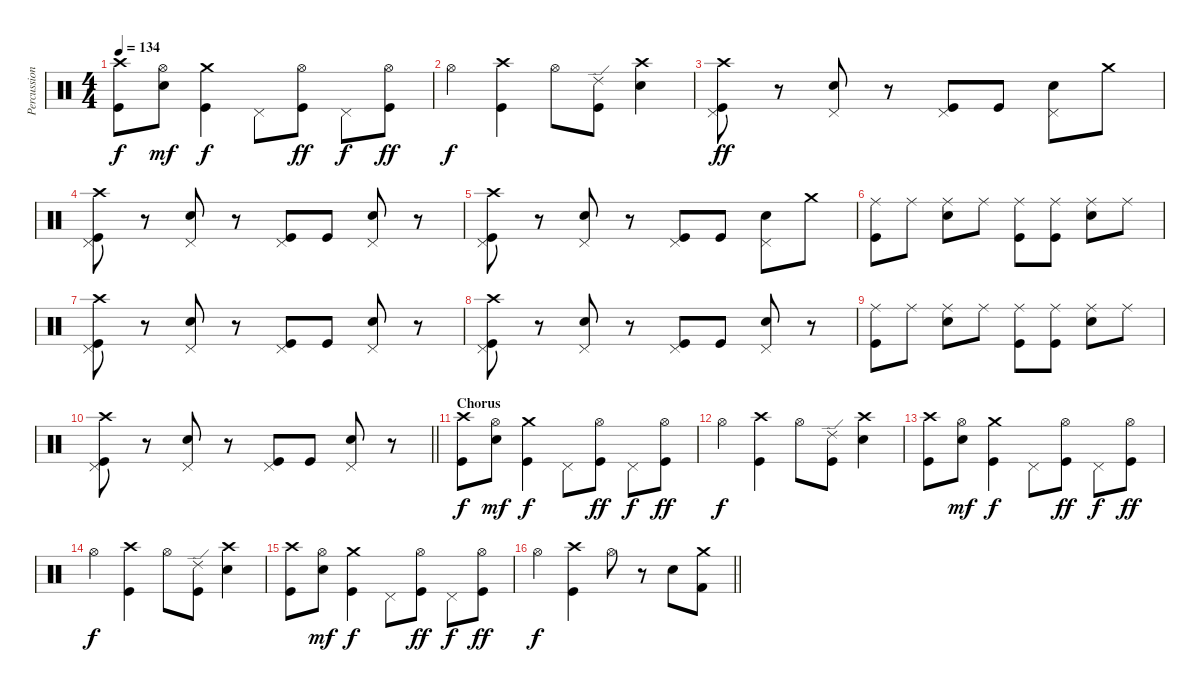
\track ("Percussion" "Percussion") {instrument percussion}
\staff {score}
\articulation defaults
\ts (4 4)
\tempo 134
\clef neutral
\ks c
("Crash high (hit)" "Kick (hit)").8{dy f} ("Hi-Hat (open)" "Electric Snare (hit)").8{dy mf} ("Crash medium (hit)" "Kick (hit)").4{dy f} "Pedal Hi-Hat (hit)".8 ("Hi-Hat (open)" "Kick (hit)").8{dy ff} "Pedal Hi-Hat (hit)".8{dy f} ("Hi-Hat (open)" "Kick (hit)").8{dy ff} |
"Hi-Hat (open)".4{dy f} ("Crash high (hit)" "Kick (hit)").4 "Hi-Hat (open)".8 ("Ride (edge) 2" "Kick (hit)").8 ("Crash high (hit)" "Electric Snare (hit)").4 |
("Crash high (hit)" "Kick (hit)" "Pedal Hi-Hat (hit)").8{dy ff} r.8 ("Electric Snare (hit)" "Pedal Hi-Hat (hit)").8 r.8 ("Kick (hit)" "Pedal Hi-Hat (hit)").8 "Kick (hit)".8 ("Electric Snare (hit)" "Pedal Hi-Hat (hit)").8 "Crash medium (hit)".8 |
("Crash high (hit)" "Kick (hit)" "Pedal Hi-Hat (hit)").8 r.8 ("Electric Snare (hit)" "Pedal Hi-Hat (hit)").8 r.8 ("Kick (hit)" "Pedal Hi-Hat (hit)").8 "Kick (hit)".8 ("Electric Snare (hit)" "Pedal Hi-Hat (hit)").8 r.8 |
("Crash high (hit)" "Kick (hit)" "Pedal Hi-Hat (hit)").8 r.8 ("Electric Snare (hit)" "Pedal Hi-Hat (hit)").8 r.8 ("Kick (hit)" "Pedal Hi-Hat (hit)").8 "Kick (hit)".8 ("Electric Snare (hit)" "Pedal Hi-Hat (hit)").8 "Crash medium (hit)".8 |
("Kick (hit)" "Ride (middle)").8 "Ride (middle)".8 ("Electric Snare (hit)" "Ride (middle)").8 "Ride (middle)".8 ("Kick (hit)" "Ride (middle)").8 ("Kick (hit)" "Ride (middle)").8 ("Electric Snare (hit)" "Ride (middle)").8 "Ride (middle)".8 |
("Crash high (hit)" "Kick (hit)" "Pedal Hi-Hat (hit)").8 r.8 ("Electric Snare (hit)" "Pedal Hi-Hat (hit)").8 r.8 ("Kick (hit)" "Pedal Hi-Hat (hit)").8 "Kick (hit)".8 ("Electric Snare (hit)" "Pedal Hi-Hat (hit)").8 r.8 |
("Crash high (hit)" "Kick (hit)" "Pedal Hi-Hat (hit)").8 r.8 ("Electric Snare (hit)" "Pedal Hi-Hat (hit)").8 r.8 ("Kick (hit)" "Pedal Hi-Hat (hit)").8 "Kick (hit)".8 ("Electric Snare (hit)" "Pedal Hi-Hat (hit)").8 r.8 |
("Kick (hit)" "Ride (middle)").8 "Ride (middle)".8 ("Electric Snare (hit)" "Ride (middle)").8 "Ride (middle)".8 ("Kick (hit)" "Ride (middle)").8 ("Kick (hit)" "Ride (middle)").8 ("Electric Snare (hit)" "Ride (middle)").8 "Ride (middle)".8 |
\barLineRight lightlight
("Crash high (hit)" "Kick (hit)" "Pedal Hi-Hat (hit)").8 r.8 ("Electric Snare (hit)" "Pedal Hi-Hat (hit)").8 r.8 ("Kick (hit)" "Pedal Hi-Hat (hit)").8 "Kick (hit)".8 ("Electric Snare (hit)" "Pedal Hi-Hat (hit)").8 r.8 |
\section ("" "Chorus")
("Crash high (hit)" "Kick (hit)").8{dy f} ("Hi-Hat (open)" "Electric Snare (hit)").8{dy mf} ("Crash medium (hit)" "Kick (hit)").4{dy f} "Pedal Hi-Hat (hit)".8 ("Hi-Hat (open)" "Kick (hit)").8{dy ff} "Pedal Hi-Hat (hit)".8{dy f} ("Hi-Hat (open)" "Kick (hit)").8{dy ff} |
"Hi-Hat (open)".4{dy f} ("Crash high (hit)" "Kick (hit)").4 "Hi-Hat (open)".8 ("Ride (edge) 2" "Kick (hit)").8 ("Crash high (hit)" "Electric Snare (hit)").4 |
("Crash high (hit)" "Kick (hit)").8 ("Hi-Hat (open)" "Electric Snare (hit)").8{dy mf} ("Crash medium (hit)" "Kick (hit)").4{dy f} "Pedal Hi-Hat (hit)".8 ("Hi-Hat (open)" "Kick (hit)").8{dy ff} "Pedal Hi-Hat (hit)".8{dy f} ("Hi-Hat (open)" "Kick (hit)").8{dy ff} |
"Hi-Hat (open)".4{dy f} ("Crash high (hit)" "Kick (hit)").4 "Hi-Hat (open)".8 ("Ride (edge) 2" "Kick (hit)").8 ("Crash high (hit)" "Electric Snare (hit)").4 |
("Crash high (hit)" "Kick (hit)").8 ("Hi-Hat (open)" "Electric Snare (hit)").8{dy mf} ("Crash medium (hit)" "Kick (hit)").4{dy f} "Pedal Hi-Hat (hit)".8 ("Hi-Hat (open)" "Kick (hit)").8{dy ff} "Pedal Hi-Hat (hit)".8{dy f} ("Hi-Hat (open)" "Kick (hit)").8{dy ff} |
\barLineRight lightlight "Hi-Hat (open)".4{dy f}
("Crash high (hit)" "Kick (hit)").4 "Hi-Hat (open)".8 r.8 "Snare (hit) 2".8 ("Crash medium (hit)" "Kick (hit) 2").8
